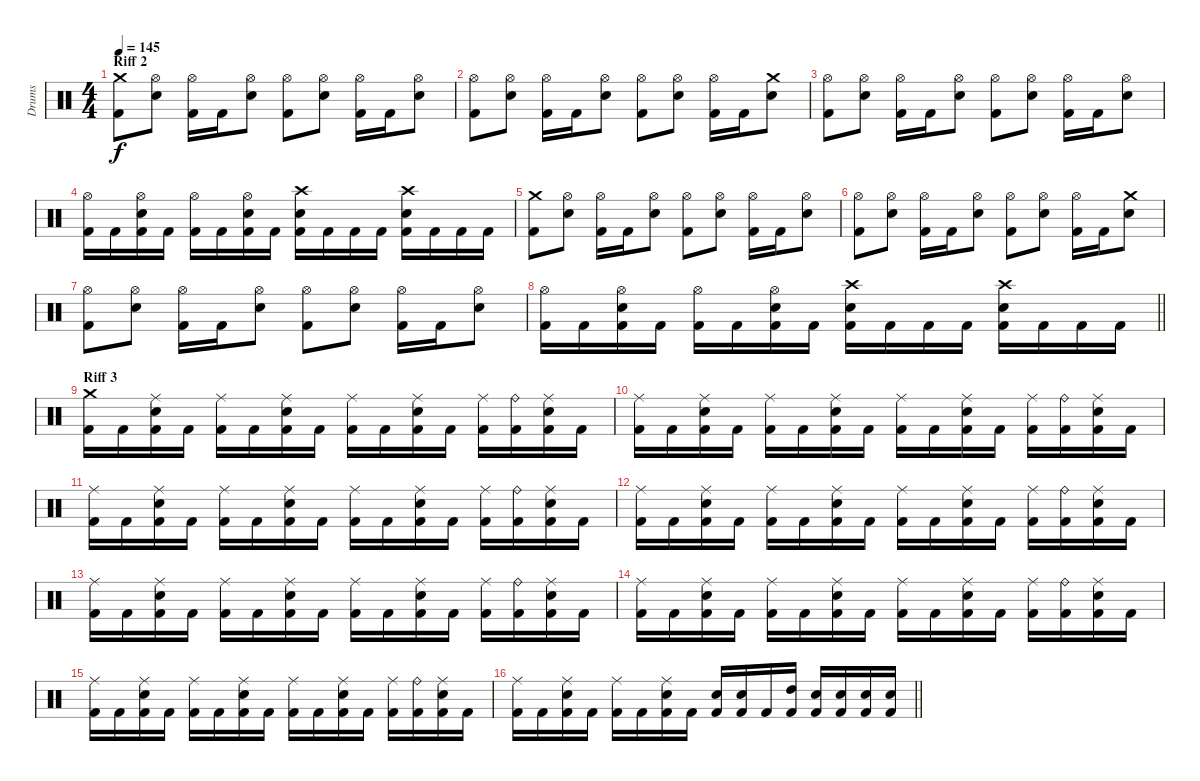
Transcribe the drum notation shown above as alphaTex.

\track ("Drums" "Drums") {instrument percussion}
\staff {score}
\articulation defaults
\ts (4 4)
\section ("" "Riff 2")
\tempo 145
\clef neutral
\ks c
("Kick (hit) 2" "Crash medium (hit)").8{dy f} ("Hi-Hat (open)" "Electric Snare (hit)").8 ("Kick (hit) 2" "Hi-Hat (open)").16 "Kick (hit) 2".16 ("Electric Snare (hit)" "Hi-Hat (open)").8 ("Kick (hit) 2" "Hi-Hat (open)").8 ("Hi-Hat (open)" "Electric Snare (hit)").8 ("Kick (hit) 2" "Hi-Hat (open)").16 "Kick (hit) 2".16 ("Electric Snare (hit)" "Hi-Hat (open)").8 |
("Kick (hit) 2" "Hi-Hat (open)").8 ("Hi-Hat (open)" "Electric Snare (hit)").8 ("Kick (hit) 2" "Hi-Hat (open)").16 "Kick (hit) 2".16 ("Electric Snare (hit)" "Hi-Hat (open)").8 ("Kick (hit) 2" "Hi-Hat (open)").8 ("Hi-Hat (open)" "Electric Snare (hit)").8 ("Kick (hit) 2" "Hi-Hat (open)").16 "Kick (hit) 2".16 ("Electric Snare (hit)" "Crash medium (hit)").8 |
("Kick (hit) 2" "Hi-Hat (open)").8 ("Hi-Hat (open)" "Electric Snare (hit)").8 ("Kick (hit) 2" "Hi-Hat (open)").16 "Kick (hit) 2".16 ("Electric Snare (hit)" "Hi-Hat (open)").8 ("Kick (hit) 2" "Hi-Hat (open)").8 ("Hi-Hat (open)" "Electric Snare (hit)").8 ("Kick (hit) 2" "Hi-Hat (open)").16 "Kick (hit) 2".16 ("Electric Snare (hit)" "Hi-Hat (open)").8 |
("Hi-Hat (open)" "Kick (hit) 2").16 "Kick (hit) 2".16 ("Hi-Hat (open)" "Kick (hit) 2" "Electric Snare (hit)").16 "Kick (hit) 2".16 ("Hi-Hat (open)" "Kick (hit) 2").16 "Kick (hit) 2".16 ("Hi-Hat (open)" "Kick (hit) 2" "Electric Snare (hit)").16 "Kick (hit) 2".16 ("Electric Snare (hit)" "Kick (hit) 2" "Crash high (hit)").16 "Kick (hit) 2".16 "Kick (hit) 2".16 "Kick (hit) 2".16 ("Electric Snare (hit)" "Kick (hit) 2" "Crash high (hit)").16 "Kick (hit) 2".16 "Kick (hit) 2".16 "Kick (hit) 2".16 |
("Kick (hit) 2" "Crash medium (hit)").8 ("Hi-Hat (open)" "Electric Snare (hit)").8 ("Kick (hit) 2" "Hi-Hat (open)").16 "Kick (hit) 2".16 ("Electric Snare (hit)" "Hi-Hat (open)").8 ("Kick (hit) 2" "Hi-Hat (open)").8 ("Hi-Hat (open)" "Electric Snare (hit)").8 ("Kick (hit) 2" "Hi-Hat (open)").16 "Kick (hit) 2".16 ("Electric Snare (hit)" "Hi-Hat (open)").8 |
("Kick (hit) 2" "Hi-Hat (open)").8 ("Hi-Hat (open)" "Electric Snare (hit)").8 ("Kick (hit) 2" "Hi-Hat (open)").16 "Kick (hit) 2".16 ("Electric Snare (hit)" "Hi-Hat (open)").8 ("Kick (hit) 2" "Hi-Hat (open)").8 ("Hi-Hat (open)" "Electric Snare (hit)").8 ("Kick (hit) 2" "Hi-Hat (open)").16 "Kick (hit) 2".16 ("Electric Snare (hit)" "Crash medium (hit)").8 |
("Kick (hit) 2" "Hi-Hat (open)").8 ("Hi-Hat (open)" "Electric Snare (hit)").8 ("Kick (hit) 2" "Hi-Hat (open)").16 "Kick (hit) 2".16 ("Electric Snare (hit)" "Hi-Hat (open)").8 ("Kick (hit) 2" "Hi-Hat (open)").8 ("Hi-Hat (open)" "Electric Snare (hit)").8 ("Kick (hit) 2" "Hi-Hat (open)").16 "Kick (hit) 2".16 ("Electric Snare (hit)" "Hi-Hat (open)").8 |
\barLineRight lightlight
("Hi-Hat (open)" "Kick (hit) 2").16 "Kick (hit) 2".16 ("Hi-Hat (open)" "Kick (hit) 2" "Electric Snare (hit)").16 "Kick (hit) 2".16 ("Hi-Hat (open)" "Kick (hit) 2").16 "Kick (hit) 2".16 ("Hi-Hat (open)" "Kick (hit) 2" "Electric Snare (hit)").16 "Kick (hit) 2".16 ("Electric Snare (hit)" "Kick (hit) 2" "Crash high (hit)").16 "Kick (hit) 2".16 "Kick (hit) 2".16 "Kick (hit) 2".16 ("Electric Snare (hit)" "Kick (hit) 2" "Crash high (hit)").16 "Kick (hit) 2".16 "Kick (hit) 2".16 "Kick (hit) 2".16 |
\section ("" "Riff 3")
("Crash medium (hit)" "Kick (hit) 2").16 "Kick (hit) 2".16 ("Ride (middle)" "Electric Snare (hit)" "Kick (hit) 2").16 "Kick (hit) 2".16 ("Ride (middle)" "Kick (hit) 2").16 "Kick (hit) 2".16 ("Ride (middle)" "Electric Snare (hit)" "Kick (hit) 2").16 "Kick (hit) 2".16 ("Ride (middle)" "Kick (hit) 2").16 "Kick (hit) 2".16 ("Ride (middle)" "Electric Snare (hit)" "Kick (hit) 2").16 "Kick (hit) 2".16 ("Ride (middle)" "Kick (hit) 2").16 ("Ride (bell)" "Kick (hit) 2").16 ("Ride (middle)" "Electric Snare (hit)" "Kick (hit) 2").16 "Kick (hit) 2".16 |
("Ride (middle)" "Kick (hit) 2").16 "Kick (hit) 2".16 ("Ride (middle)" "Electric Snare (hit)" "Kick (hit) 2").16 "Kick (hit) 2".16 ("Ride (middle)" "Kick (hit) 2").16 "Kick (hit) 2".16 ("Ride (middle)" "Electric Snare (hit)" "Kick (hit) 2").16 "Kick (hit) 2".16 ("Ride (middle)" "Kick (hit) 2").16 "Kick (hit) 2".16 ("Ride (middle)" "Electric Snare (hit)" "Kick (hit) 2").16 "Kick (hit) 2".16 ("Ride (middle)" "Kick (hit) 2").16 ("Ride (bell)" "Kick (hit) 2").16 ("Ride (middle)" "Electric Snare (hit)" "Kick (hit) 2").16 "Kick (hit) 2".16 |
("Ride (middle)" "Kick (hit) 2").16 "Kick (hit) 2".16 ("Ride (middle)" "Electric Snare (hit)" "Kick (hit) 2").16 "Kick (hit) 2".16 ("Ride (middle)" "Kick (hit) 2").16 "Kick (hit) 2".16 ("Ride (middle)" "Electric Snare (hit)" "Kick (hit) 2").16 "Kick (hit) 2".16 ("Ride (middle)" "Kick (hit) 2").16 "Kick (hit) 2".16 ("Ride (middle)" "Electric Snare (hit)" "Kick (hit) 2").16 "Kick (hit) 2".16 ("Ride (middle)" "Kick (hit) 2").16 ("Ride (bell)" "Kick (hit) 2").16 ("Ride (middle)" "Electric Snare (hit)" "Kick (hit) 2").16 "Kick (hit) 2".16 |
("Ride (middle)" "Kick (hit) 2").16 "Kick (hit) 2".16 ("Ride (middle)" "Electric Snare (hit)" "Kick (hit) 2").16 "Kick (hit) 2".16 ("Ride (middle)" "Kick (hit) 2").16 "Kick (hit) 2".16 ("Ride (middle)" "Electric Snare (hit)" "Kick (hit) 2").16 "Kick (hit) 2".16 ("Ride (middle)" "Kick (hit) 2").16 "Kick (hit) 2".16 ("Ride (middle)" "Electric Snare (hit)" "Kick (hit) 2").16 "Kick (hit) 2".16 ("Ride (middle)" "Kick (hit) 2").16 ("Ride (bell)" "Kick (hit) 2").16 ("Ride (middle)" "Electric Snare (hit)" "Kick (hit) 2").16 "Kick (hit) 2".16 |
("Ride (middle)" "Kick (hit) 2").16 "Kick (hit) 2".16 ("Ride (middle)" "Electric Snare (hit)" "Kick (hit) 2").16 "Kick (hit) 2".16 ("Ride (middle)" "Kick (hit) 2").16 "Kick (hit) 2".16 ("Ride (middle)" "Electric Snare (hit)" "Kick (hit) 2").16 "Kick (hit) 2".16 ("Ride (middle)" "Kick (hit) 2").16 "Kick (hit) 2".16 ("Ride (middle)" "Electric Snare (hit)" "Kick (hit) 2").16 "Kick (hit) 2".16 ("Ride (middle)" "Kick (hit) 2").16 ("Ride (bell)" "Kick (hit) 2").16 ("Ride (middle)" "Electric Snare (hit)" "Kick (hit) 2").16 "Kick (hit) 2".16 |
("Ride (middle)" "Kick (hit) 2").16 "Kick (hit) 2".16 ("Ride (middle)" "Electric Snare (hit)" "Kick (hit) 2").16 "Kick (hit) 2".16 ("Ride (middle)" "Kick (hit) 2").16 "Kick (hit) 2".16 ("Ride (middle)" "Electric Snare (hit)" "Kick (hit) 2").16 "Kick (hit) 2".16 ("Ride (middle)" "Kick (hit) 2").16 "Kick (hit) 2".16 ("Ride (middle)" "Electric Snare (hit)" "Kick (hit) 2").16 "Kick (hit) 2".16 ("Ride (middle)" "Kick (hit) 2").16 ("Ride (bell)" "Kick (hit) 2").16 ("Ride (middle)" "Electric Snare (hit)" "Kick (hit) 2").16 "Kick (hit) 2".16 |
("Ride (middle)" "Kick (hit) 2").16 "Kick (hit) 2".16 ("Ride (middle)" "Electric Snare (hit)" "Kick (hit) 2").16 "Kick (hit) 2".16 ("Ride (middle)" "Kick (hit) 2").16 "Kick (hit) 2".16 ("Ride (middle)" "Electric Snare (hit)" "Kick (hit) 2").16 "Kick (hit) 2".16 ("Ride (middle)" "Kick (hit) 2").16 "Kick (hit) 2".16 ("Ride (middle)" "Electric Snare (hit)" "Kick (hit) 2").16 "Kick (hit) 2".16 ("Ride (middle)" "Kick (hit) 2").16 ("Ride (bell)" "Kick (hit) 2").16 ("Ride (middle)" "Electric Snare (hit)" "Kick (hit) 2").16 "Kick (hit) 2".16 |
\barLineRight lightlight
("Ride (middle)" "Kick (hit) 2").16 "Kick (hit) 2".16 ("Ride (middle)" "Electric Snare (hit)" "Kick (hit) 2").16 "Kick (hit) 2".16 ("Ride (middle)" "Kick (hit) 2").16 "Kick (hit) 2".16 ("Ride (middle)" "Electric Snare (hit)" "Kick (hit) 2").16 "Kick (hit) 2".16 ("Electric Snare (hit)" "Kick (hit) 2").16 ("Electric Snare (hit)" "Kick (hit) 2").16 "Kick (hit) 2".16 ("High Tom (hit)" "Kick (hit) 2").16 ("Electric Snare (hit)" "Kick (hit) 2").16 ("Electric Snare (hit)" "Kick (hit) 2").16 ("Electric Snare (hit)" "Kick (hit) 2").16 ("Electric Snare (hit)" "Kick (hit) 2").16
